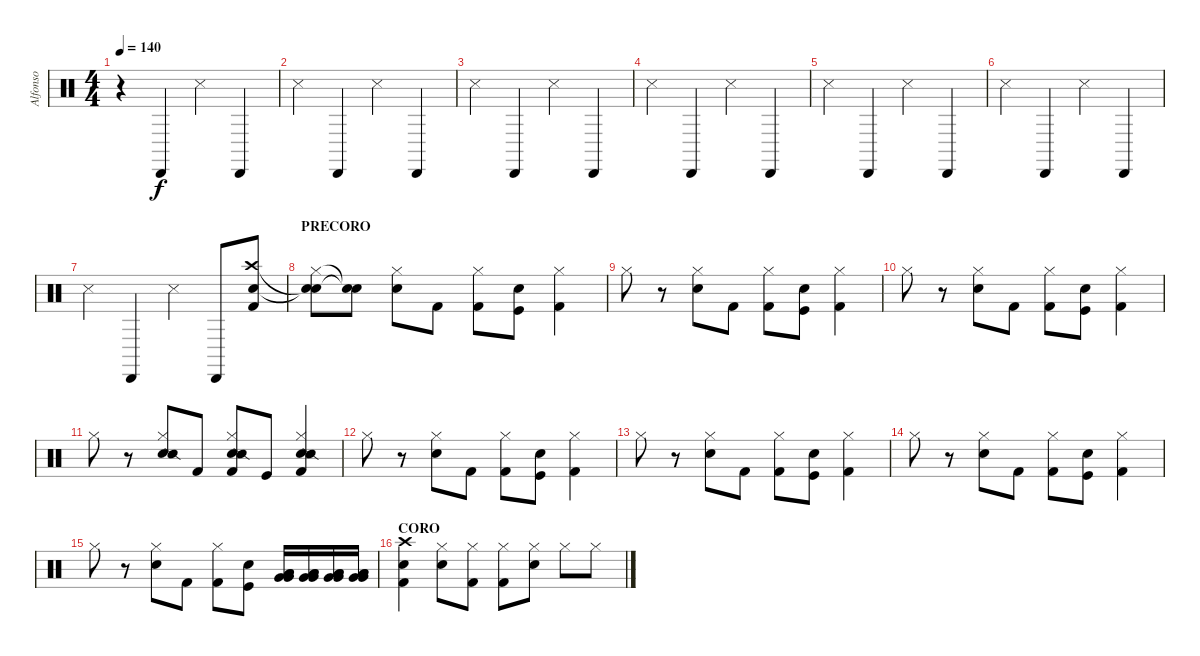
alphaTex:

\track ("Alfonso" "Alfonso") {instrument percussion}
\staff {score}
\articulation defaults
\ts (4 4)
\tempo 140
\clef neutral
\ks c
r.4{dy f} "Cabasa (hit)".4 "Metronome (hit)".4 "Cabasa (hit)".4 |
"Metronome (hit)".4 "Cabasa (hit)".4 "Metronome (hit)".4 "Cabasa (hit)".4 |
"Metronome (hit)".4 "Cabasa (hit)".4 "Metronome (hit)".4 "Cabasa (hit)".4 |
"Metronome (hit)".4 "Cabasa (hit)".4 "Metronome (hit)".4 "Cabasa (hit)".4 |
"Metronome (hit)".4 "Cabasa (hit)".4 "Metronome (hit)".4 "Cabasa (hit)".4 |
"Metronome (hit)".4 "Cabasa (hit)".4 "Metronome (hit)".4 "Cabasa (hit)".4 |
"Metronome (hit)".4 "Cabasa (hit)".4 "Metronome (hit)".4 "Cabasa (hit)".8 ("Kick (hit) 2" "Electric Snare (hit)" "Crash high (hit)").8 |
\section ("" "PRECORO")
("Hi-Hat (closed)" "Snare (hit)"{t} "Snare (hit)"{t}).8 ("Snare (hit)"{t} "Snare (hit)"{t}).8 ("Hi-Hat (closed)" "Electric Snare (hit)").8 "Kick (hit) 2".8 ("Hi-Hat (closed)" "Kick (hit) 2").8 ("Electric Snare (hit)" "Kick (hit)").8 ("Hi-Hat (closed)" "Kick (hit) 2").4 |
"Hi-Hat (closed)".8 r.8 ("Hi-Hat (closed)" "Electric Snare (hit)").8 "Kick (hit) 2".8 ("Hi-Hat (closed)" "Kick (hit) 2").8 ("Electric Snare (hit)" "Kick (hit)").8 ("Hi-Hat (closed)" "Kick (hit) 2").4 |
"Hi-Hat (closed)".8 r.8 ("Hi-Hat (closed)" "Electric Snare (hit)").8 "Kick (hit) 2".8 ("Hi-Hat (closed)" "Kick (hit) 2").8 ("Electric Snare (hit)" "Kick (hit)").8 ("Hi-Hat (closed)" "Kick (hit) 2").4 |
"Hi-Hat (closed)".8 r.8 ("Hi-Hat (closed)" "Electric Snare (hit)" "Snare (side stick) 2").8 "Kick (hit) 2".8 ("Hi-Hat (closed)" "Electric Snare (hit)" "Kick (hit) 2" "Snare (side stick) 2").8 "Kick (hit)".8 ("Hi-Hat (closed)" "Electric Snare (hit)" "Kick (hit) 2" "Snare (side stick) 2").4 |
"Hi-Hat (closed)".8 r.8 ("Hi-Hat (closed)" "Electric Snare (hit)").8 "Kick (hit) 2".8 ("Hi-Hat (closed)" "Kick (hit) 2").8 ("Electric Snare (hit)" "Kick (hit)").8 ("Hi-Hat (closed)" "Kick (hit) 2").4 |
"Hi-Hat (closed)".8 r.8 ("Hi-Hat (closed)" "Electric Snare (hit)").8 "Kick (hit) 2".8 ("Hi-Hat (closed)" "Kick (hit) 2").8 ("Electric Snare (hit)" "Kick (hit)").8 ("Hi-Hat (closed)" "Kick (hit) 2").4 |
"Hi-Hat (closed)".8 r.8 ("Hi-Hat (closed)" "Electric Snare (hit)").8 "Kick (hit) 2".8 ("Hi-Hat (closed)" "Kick (hit) 2").8 ("Electric Snare (hit)" "Kick (hit)").8 ("Hi-Hat (closed)" "Kick (hit) 2").4 |
"Hi-Hat (closed)".8 r.8 ("Hi-Hat (closed)" "Electric Snare (hit)").8 "Kick (hit) 2".8 ("Hi-Hat (closed)" "Kick (hit) 2").8 ("Electric Snare (hit)" "Kick (hit)").8 ("Low Floor Tom (hit)" "Very Low Tom (hit)" "Very Low Tom (hit)" "Low Floor Tom (hit)").16 ("Low Floor Tom (hit)" "Very Low Tom (hit)" "Very Low Tom (hit)" "Low Floor Tom (hit)").16 ("Low Floor Tom (hit)" "Very Low Tom (hit)" "Very Low Tom (hit)" "Low Floor Tom (hit)").16 ("Low Floor Tom (hit)" "Very Low Tom (hit)" "Very Low Tom (hit)" "Low Floor Tom (hit)").16 |
\section ("" "CORO")
("Kick (hit) 2" "Crash high (hit)" "Electric Snare (hit)").4 ("Hi-Hat (closed)" "Electric Snare (hit)").8 ("Hi-Hat (closed)" "Kick (hit) 2").8 ("Hi-Hat (closed)" "Kick (hit) 2").8 ("Hi-Hat (closed)" "Electric Snare (hit)").8 "Hi-Hat (closed)".8 "Hi-Hat (closed)".8
